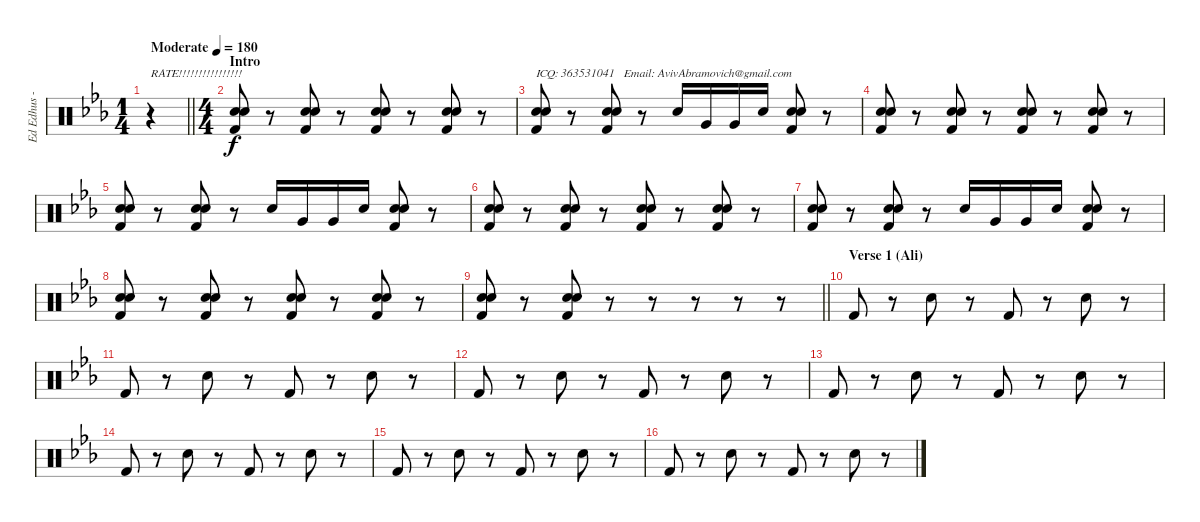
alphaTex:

\track ("Ed Edhus - Drums" "Ed Edhus -") {instrument percussion bank 127}
\staff {score}
\articulation defaults
\ts (1 4)
\tempo (180 "Moderate")
\clef neutral
\barLineRight lightlight
\ks eb
r.4{txt "RATE!!!!!!!!!!!!!!!!" dy f} |
\ts (4 4)
\section ("" "Intro")
("Snare (hit) 2" "Snare (hit) 2" "Kick (hit) 2").8 r.8 ("Snare (hit) 2" "Snare (hit) 2" "Kick (hit) 2").8 r.8 ("Snare (hit) 2" "Snare (hit) 2" "Kick (hit) 2").8 r.8 ("Snare (hit) 2" "Snare (hit) 2" "Kick (hit) 2").8 r.8 |
("Snare (hit) 2" "Snare (hit) 2" "Kick (hit) 2").8{txt "ICQ: 363531041   Email: AvivAbramovich@gmail.com"} r.8 ("Snare (hit) 2" "Snare (hit) 2" "Kick (hit) 2").8 r.8 "Snare (hit) 2".16 "Very Low Tom (hit)".16 "Very Low Tom (hit)".16 "Snare (hit) 2".16 ("Snare (hit) 2" "Snare (hit) 2" "Kick (hit) 2").8 r.8 |
("Snare (hit) 2" "Snare (hit) 2" "Kick (hit) 2").8 r.8 ("Snare (hit) 2" "Snare (hit) 2" "Kick (hit) 2").8 r.8 ("Snare (hit) 2" "Snare (hit) 2" "Kick (hit) 2").8 r.8 ("Snare (hit) 2" "Snare (hit) 2" "Kick (hit) 2").8 r.8 |
("Snare (hit) 2" "Snare (hit) 2" "Kick (hit) 2").8 r.8 ("Snare (hit) 2" "Snare (hit) 2" "Kick (hit) 2").8 r.8 "Snare (hit) 2".16 "Very Low Tom (hit)".16 "Very Low Tom (hit)".16 "Snare (hit) 2".16 ("Snare (hit) 2" "Snare (hit) 2" "Kick (hit) 2").8 r.8 |
("Snare (hit) 2" "Snare (hit) 2" "Kick (hit) 2").8 r.8 ("Snare (hit) 2" "Snare (hit) 2" "Kick (hit) 2").8 r.8 ("Snare (hit) 2" "Snare (hit) 2" "Kick (hit) 2").8 r.8 ("Snare (hit) 2" "Snare (hit) 2" "Kick (hit) 2").8 r.8 |
("Snare (hit) 2" "Snare (hit) 2" "Kick (hit) 2").8 r.8 ("Snare (hit) 2" "Snare (hit) 2" "Kick (hit) 2").8 r.8 "Snare (hit) 2".16 "Very Low Tom (hit)".16 "Very Low Tom (hit)".16 "Snare (hit) 2".16 ("Snare (hit) 2" "Snare (hit) 2" "Kick (hit) 2").8 r.8 |
("Snare (hit) 2" "Snare (hit) 2" "Kick (hit) 2").8 r.8 ("Snare (hit) 2" "Snare (hit) 2" "Kick (hit) 2").8 r.8 ("Snare (hit) 2" "Snare (hit) 2" "Kick (hit) 2").8 r.8 ("Snare (hit) 2" "Snare (hit) 2" "Kick (hit) 2").8 r.8 |
\barLineRight lightlight
("Snare (hit) 2" "Snare (hit) 2" "Kick (hit) 2").8 r.8 ("Snare (hit) 2" "Snare (hit) 2" "Kick (hit) 2").8 r.8 r.8 r.8 r.8 r.8 |
\section ("" "Verse 1 (Ali)")
"Kick (hit) 2".8 r.8 "Snare (hit) 2".8 r.8 "Kick (hit) 2".8 r.8 "Snare (hit) 2".8 r.8 |
"Kick (hit) 2".8 r.8 "Snare (hit) 2".8 r.8 "Kick (hit) 2".8 r.8 "Snare (hit) 2".8 r.8 |
"Kick (hit) 2".8 r.8 "Snare (hit) 2".8 r.8 "Kick (hit) 2".8 r.8 "Snare (hit) 2".8 r.8 |
"Kick (hit) 2".8 r.8 "Snare (hit) 2".8 r.8 "Kick (hit) 2".8 r.8 "Snare (hit) 2".8 r.8 |
"Kick (hit) 2".8 r.8 "Snare (hit) 2".8 r.8 "Kick (hit) 2".8 r.8 "Snare (hit) 2".8 r.8 |
"Kick (hit) 2".8 r.8 "Snare (hit) 2".8 r.8 "Kick (hit) 2".8 r.8 "Snare (hit) 2".8 r.8 |
"Kick (hit) 2".8 r.8 "Snare (hit) 2".8 r.8 "Kick (hit) 2".8 r.8 "Snare (hit) 2".8 r.8
